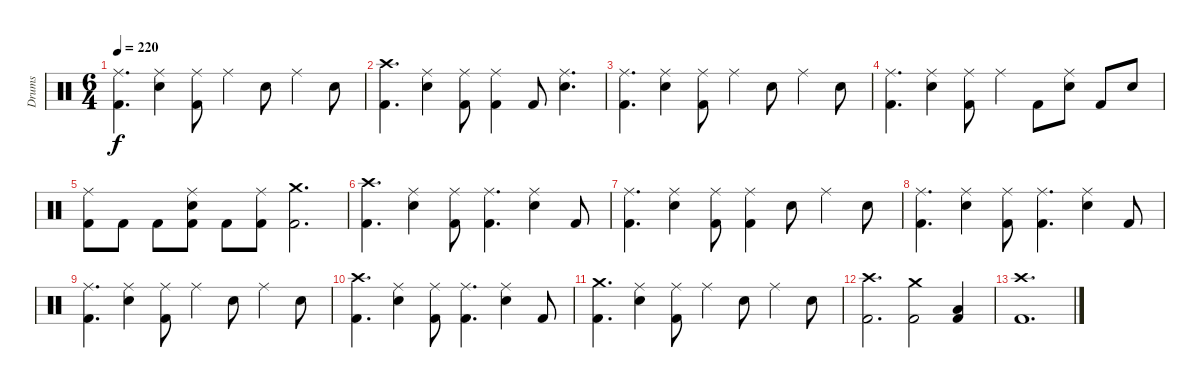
\track ("Drums" "Drums") {instrument percussion}
\staff {score}
\articulation defaults
\ts (6 4)
\tempo 220
\clef neutral
\ks c
("Ride (middle)" "Kick (hit) 2").4{d dy f} ("Ride (middle)" "Electric Snare (hit)").4 ("Ride (middle)" "Kick (hit) 2").8 "Ride (middle)".4 "Electric Snare (hit)".8 "Ride (middle)".4 "Electric Snare (hit)".8 |
("Crash high (hit)" "Kick (hit) 2").4{d} ("Ride (middle)" "Electric Snare (hit)").4 ("Ride (middle)" "Kick (hit) 2").8 ("Ride (middle)" "Kick (hit) 2").4 "Kick (hit) 2".8 ("Ride (middle)" "Electric Snare (hit)").4{d} |
("Ride (middle)" "Kick (hit) 2").4{d} ("Ride (middle)" "Electric Snare (hit)").4 ("Ride (middle)" "Kick (hit) 2").8 "Ride (middle)".4 "Electric Snare (hit)".8 "Ride (middle)".4 "Electric Snare (hit)".8 |
("Ride (middle)" "Kick (hit) 2").4{d} ("Ride (middle)" "Electric Snare (hit)").4 ("Ride (middle)" "Kick (hit) 2").8 "Ride (middle)".4 "Kick (hit) 2".8 ("Ride (middle)" "Electric Snare (hit)").8 "Kick (hit) 2".8 "Electric Snare (hit)".8 |
("Ride (middle)" "Kick (hit) 2").8 "Kick (hit) 2".8 "Kick (hit) 2".8 ("Ride (middle)" "Electric Snare (hit)" "Kick (hit) 2").8 "Kick (hit) 2".8 ("Ride (middle)" "Kick (hit) 2").8 ("Crash medium (hit)" "Kick (hit) 2").2{d} |
("Crash high (hit)" "Kick (hit) 2").4{d} ("Ride (middle)" "Electric Snare (hit)").4 ("Ride (middle)" "Kick (hit) 2").8 ("Ride (middle)" "Kick (hit) 2").4{d} ("Ride (middle)" "Electric Snare (hit)").4 "Kick (hit) 2".8 |
("Ride (middle)" "Kick (hit) 2").4{d} ("Ride (middle)" "Electric Snare (hit)").4 ("Ride (middle)" "Kick (hit) 2").8 ("Ride (middle)" "Kick (hit) 2").4 "Electric Snare (hit)".8 "Ride (middle)".4 "Electric Snare (hit)".8 |
("Ride (middle)" "Kick (hit) 2").4{d} ("Ride (middle)" "Electric Snare (hit)").4 ("Ride (middle)" "Kick (hit) 2").8 ("Ride (middle)" "Kick (hit) 2").4{d} ("Ride (middle)" "Electric Snare (hit)").4 "Kick (hit) 2".8 |
("Ride (middle)" "Kick (hit) 2").4{d} ("Ride (middle)" "Electric Snare (hit)").4 ("Ride (middle)" "Kick (hit) 2").8 "Ride (middle)".4 "Electric Snare (hit)".8 "Ride (middle)".4 "Electric Snare (hit)".8 |
("Crash high (hit)" "Kick (hit) 2").4{d} ("Ride (middle)" "Electric Snare (hit)").4 ("Ride (middle)" "Kick (hit) 2").8 ("Ride (middle)" "Kick (hit) 2").4{d} ("Ride (middle)" "Electric Snare (hit)").4 "Kick (hit) 2".8 |
("Crash medium (hit)" "Kick (hit) 2").4{d} ("Ride (middle)" "Electric Snare (hit)").4 ("Ride (middle)" "Kick (hit) 2").8 "Ride (middle)".4 "Electric Snare (hit)".8 "Ride (middle)".4 "Electric Snare (hit)".8 |
("Crash high (hit)" "Kick (hit) 2").2{d} ("Crash medium (hit)" "Kick (hit) 2").2 ("Low Floor Tom (hit)" "Kick (hit) 2").4 |
("Crash high (hit)" "Kick (hit) 2").1{d}
